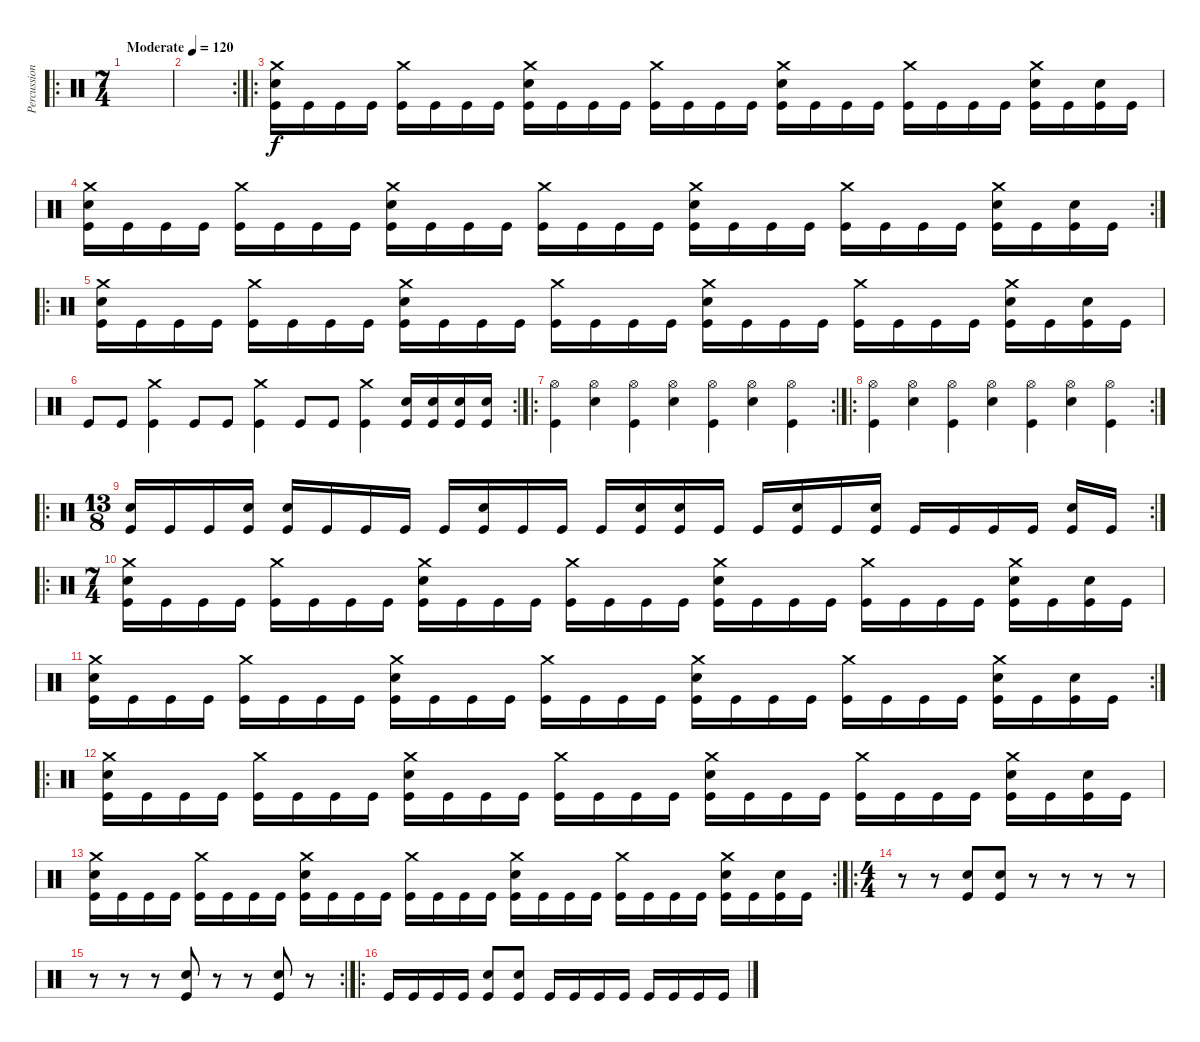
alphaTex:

\track ("Percussion" "Percussion") {instrument percussion}
\staff {score}
\articulation defaults
\ro
\ts (7 4)
\tempo (120 "Moderate")
\clef neutral
\ks c
|
\rc 2
|
\ro
("Crash medium (hit)" "Snare (hit) 2" "Kick (hit)").16 "Kick (hit)".16 "Kick (hit)".16 "Kick (hit)".16 ("Crash medium (hit)" "Kick (hit)").16 "Kick (hit)".16 "Kick (hit)".16 "Kick (hit)".16 ("Crash medium (hit)" "Snare (hit) 2" "Kick (hit)").16 "Kick (hit)".16 "Kick (hit)".16 "Kick (hit)".16 ("Crash medium (hit)" "Kick (hit)").16 "Kick (hit)".16 "Kick (hit)".16 "Kick (hit)".16 ("Crash medium (hit)" "Snare (hit) 2" "Kick (hit)").16 "Kick (hit)".16 "Kick (hit)".16 "Kick (hit)".16 ("Crash medium (hit)" "Kick (hit)").16 "Kick (hit)".16 "Kick (hit)".16 "Kick (hit)".16 ("Crash medium (hit)" "Snare (hit) 2" "Kick (hit)").16 "Kick (hit)".16 ("Snare (hit) 2" "Kick (hit)").16 "Kick (hit)".16 |
\rc 2
("Crash medium (hit)" "Snare (hit) 2" "Kick (hit)").16 "Kick (hit)".16 "Kick (hit)".16 "Kick (hit)".16 ("Crash medium (hit)" "Kick (hit)").16 "Kick (hit)".16 "Kick (hit)".16 "Kick (hit)".16 ("Crash medium (hit)" "Snare (hit) 2" "Kick (hit)").16 "Kick (hit)".16 "Kick (hit)".16 "Kick (hit)".16 ("Crash medium (hit)" "Kick (hit)").16 "Kick (hit)".16 "Kick (hit)".16 "Kick (hit)".16 ("Crash medium (hit)" "Snare (hit) 2" "Kick (hit)").16 "Kick (hit)".16 "Kick (hit)".16 "Kick (hit)".16 ("Crash medium (hit)" "Kick (hit)").16 "Kick (hit)".16 "Kick (hit)".16 "Kick (hit)".16 ("Crash medium (hit)" "Snare (hit) 2" "Kick (hit)").16 "Kick (hit)".16 ("Snare (hit) 2" "Kick (hit)").16 "Kick (hit)".16 |
\ro
("Crash medium (hit)" "Snare (hit) 2" "Kick (hit)").16 "Kick (hit)".16 "Kick (hit)".16 "Kick (hit)".16 ("Crash medium (hit)" "Kick (hit)").16 "Kick (hit)".16 "Kick (hit)".16 "Kick (hit)".16 ("Crash medium (hit)" "Snare (hit) 2" "Kick (hit)").16 "Kick (hit)".16 "Kick (hit)".16 "Kick (hit)".16 ("Crash medium (hit)" "Kick (hit)").16 "Kick (hit)".16 "Kick (hit)".16 "Kick (hit)".16 ("Crash medium (hit)" "Snare (hit) 2" "Kick (hit)").16 "Kick (hit)".16 "Kick (hit)".16 "Kick (hit)".16 ("Crash medium (hit)" "Kick (hit)").16 "Kick (hit)".16 "Kick (hit)".16 "Kick (hit)".16 ("Crash medium (hit)" "Snare (hit) 2" "Kick (hit)").16 "Kick (hit)".16 ("Snare (hit) 2" "Kick (hit)").16 "Kick (hit)".16 |
\rc 2 "Kick (hit)".8 "Kick (hit)".8
("Crash medium (hit)" "Kick (hit)").4 "Kick (hit)".8 "Kick (hit)".8 ("Crash medium (hit)" "Kick (hit)").4 "Kick (hit)".8 "Kick (hit)".8 ("Crash medium (hit)" "Kick (hit)").4 ("Snare (hit) 2" "Kick (hit)").16 ("Snare (hit) 2" "Kick (hit)").16 ("Snare (hit) 2" "Kick (hit)").16 ("Snare (hit) 2" "Kick (hit)").16 |
\ro
\rc 2
("Hi-Hat (open)" "Kick (hit)").4 ("Hi-Hat (open)" "Snare (hit) 2").4 ("Hi-Hat (open)" "Kick (hit)").4 ("Hi-Hat (open)" "Snare (hit) 2").4 ("Hi-Hat (open)" "Kick (hit)").4 ("Hi-Hat (open)" "Snare (hit) 2").4 ("Hi-Hat (open)" "Kick (hit)").4 |
\ro
\rc 2
("Hi-Hat (open)" "Kick (hit)").4 ("Hi-Hat (open)" "Snare (hit) 2").4 ("Hi-Hat (open)" "Kick (hit)").4 ("Hi-Hat (open)" "Snare (hit) 2").4 ("Hi-Hat (open)" "Kick (hit)").4 ("Hi-Hat (open)" "Snare (hit) 2").4 ("Hi-Hat (open)" "Kick (hit)").4 |
\ro
\rc 2
\ts (13 8)
("Snare (hit) 2" "Kick (hit)").16 "Kick (hit)".16 "Kick (hit)".16 ("Snare (hit) 2" "Kick (hit)").16 ("Snare (hit) 2" "Kick (hit)").16 "Kick (hit)".16 "Kick (hit)".16 "Kick (hit)".16 "Kick (hit)".16 ("Snare (hit) 2" "Kick (hit)").16 "Kick (hit)".16 "Kick (hit)".16 "Kick (hit)".16 ("Snare (hit) 2" "Kick (hit)").16 ("Snare (hit) 2" "Kick (hit)").16 "Kick (hit)".16 "Kick (hit)".16 ("Snare (hit) 2" "Kick (hit)").16 "Kick (hit)".16 ("Snare (hit) 2" "Kick (hit)").16 "Kick (hit)".16 "Kick (hit)".16 "Kick (hit)".16 "Kick (hit)".16 ("Snare (hit) 2" "Kick (hit)").16 "Kick (hit)".16 |
\ro
\ts (7 4)
("Crash medium (hit)" "Snare (hit) 2" "Kick (hit)").16 "Kick (hit)".16 "Kick (hit)".16 "Kick (hit)".16 ("Crash medium (hit)" "Kick (hit)").16 "Kick (hit)".16 "Kick (hit)".16 "Kick (hit)".16 ("Crash medium (hit)" "Snare (hit) 2" "Kick (hit)").16 "Kick (hit)".16 "Kick (hit)".16 "Kick (hit)".16 ("Crash medium (hit)" "Kick (hit)").16 "Kick (hit)".16 "Kick (hit)".16 "Kick (hit)".16 ("Crash medium (hit)" "Snare (hit) 2" "Kick (hit)").16 "Kick (hit)".16 "Kick (hit)".16 "Kick (hit)".16 ("Crash medium (hit)" "Kick (hit)").16 "Kick (hit)".16 "Kick (hit)".16 "Kick (hit)".16 ("Crash medium (hit)" "Snare (hit) 2" "Kick (hit)").16 "Kick (hit)".16 ("Snare (hit) 2" "Kick (hit)").16 "Kick (hit)".16 |
\rc 2
("Crash medium (hit)" "Snare (hit) 2" "Kick (hit)").16 "Kick (hit)".16 "Kick (hit)".16 "Kick (hit)".16 ("Crash medium (hit)" "Kick (hit)").16 "Kick (hit)".16 "Kick (hit)".16 "Kick (hit)".16 ("Crash medium (hit)" "Snare (hit) 2" "Kick (hit)").16 "Kick (hit)".16 "Kick (hit)".16 "Kick (hit)".16 ("Crash medium (hit)" "Kick (hit)").16 "Kick (hit)".16 "Kick (hit)".16 "Kick (hit)".16 ("Crash medium (hit)" "Snare (hit) 2" "Kick (hit)").16 "Kick (hit)".16 "Kick (hit)".16 "Kick (hit)".16 ("Crash medium (hit)" "Kick (hit)").16 "Kick (hit)".16 "Kick (hit)".16 "Kick (hit)".16 ("Crash medium (hit)" "Snare (hit) 2" "Kick (hit)").16 "Kick (hit)".16 ("Snare (hit) 2" "Kick (hit)").16 "Kick (hit)".16 |
\ro
("Crash medium (hit)" "Snare (hit) 2" "Kick (hit)").16 "Kick (hit)".16 "Kick (hit)".16 "Kick (hit)".16 ("Crash medium (hit)" "Kick (hit)").16 "Kick (hit)".16 "Kick (hit)".16 "Kick (hit)".16 ("Crash medium (hit)" "Snare (hit) 2" "Kick (hit)").16 "Kick (hit)".16 "Kick (hit)".16 "Kick (hit)".16 ("Crash medium (hit)" "Kick (hit)").16 "Kick (hit)".16 "Kick (hit)".16 "Kick (hit)".16 ("Crash medium (hit)" "Snare (hit) 2" "Kick (hit)").16 "Kick (hit)".16 "Kick (hit)".16 "Kick (hit)".16 ("Crash medium (hit)" "Kick (hit)").16 "Kick (hit)".16 "Kick (hit)".16 "Kick (hit)".16 ("Crash medium (hit)" "Snare (hit) 2" "Kick (hit)").16 "Kick (hit)".16 ("Snare (hit) 2" "Kick (hit)").16 "Kick (hit)".16 |
\rc 2
("Crash medium (hit)" "Snare (hit) 2" "Kick (hit)").16 "Kick (hit)".16 "Kick (hit)".16 "Kick (hit)".16 ("Crash medium (hit)" "Kick (hit)").16 "Kick (hit)".16 "Kick (hit)".16 "Kick (hit)".16 ("Crash medium (hit)" "Snare (hit) 2" "Kick (hit)").16 "Kick (hit)".16 "Kick (hit)".16 "Kick (hit)".16 ("Crash medium (hit)" "Kick (hit)").16 "Kick (hit)".16 "Kick (hit)".16 "Kick (hit)".16 ("Crash medium (hit)" "Snare (hit) 2" "Kick (hit)").16 "Kick (hit)".16 "Kick (hit)".16 "Kick (hit)".16 ("Crash medium (hit)" "Kick (hit)").16 "Kick (hit)".16 "Kick (hit)".16 "Kick (hit)".16 ("Crash medium (hit)" "Snare (hit) 2" "Kick (hit)").16 "Kick (hit)".16 ("Snare (hit) 2" "Kick (hit)").16 "Kick (hit)".16 |
\ro
\ts (4 4)
r.8 r.8 ("Snare (hit) 2" "Kick (hit)").8 ("Snare (hit) 2" "Kick (hit)").8 r.8 r.8 r.8 r.8 |
\rc 2
r.8 r.8 r.8 ("Snare (hit) 2" "Kick (hit)").8 r.8 r.8 ("Snare (hit) 2" "Kick (hit)").8 r.8 |
\ro "Kick (hit)".16 "Kick (hit)".16 "Kick (hit)".16 "Kick (hit)".16
("Snare (hit) 2" "Kick (hit)").8 ("Snare (hit) 2" "Kick (hit)").8 "Kick (hit)".16 "Kick (hit)".16 "Kick (hit)".16 "Kick (hit)".16 "Kick (hit)".16 "Kick (hit)".16 "Kick (hit)".16 "Kick (hit)".16
